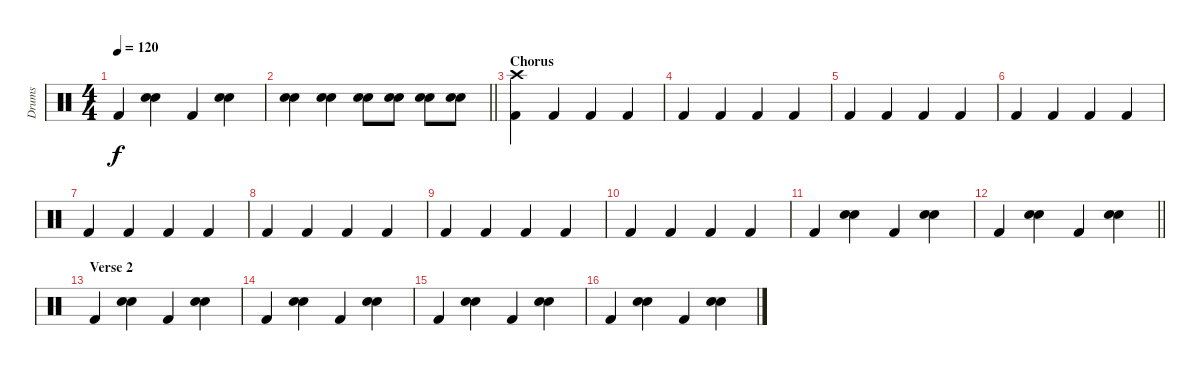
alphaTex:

\track ("Drums" "Drums") {instrument percussion}
\staff {score}
\articulation defaults
\ts (4 4)
\tempo 120
\clef neutral
\ks c "Kick (hit) 2".4{dy f}
("Electric Snare (hit)" "Snare (hit) 2").4 "Kick (hit) 2".4 ("Electric Snare (hit)" "Snare (hit) 2").4 |
\barLineRight lightlight
("Electric Snare (hit)" "Snare (hit) 2").4 ("Electric Snare (hit)" "Snare (hit) 2").4 ("Electric Snare (hit)" "Snare (hit) 2").8 ("Electric Snare (hit)" "Snare (hit) 2").8 ("Electric Snare (hit)" "Snare (hit) 2").8 ("Electric Snare (hit)" "Snare (hit) 2").8 |
\section ("" "Chorus")
("Crash high (hit)" "Kick (hit) 2").4 "Kick (hit) 2".4 "Kick (hit) 2".4 "Kick (hit) 2".4 |
"Kick (hit) 2".4 "Kick (hit) 2".4 "Kick (hit) 2".4 "Kick (hit) 2".4 |
"Kick (hit) 2".4 "Kick (hit) 2".4 "Kick (hit) 2".4 "Kick (hit) 2".4 |
"Kick (hit) 2".4 "Kick (hit) 2".4 "Kick (hit) 2".4 "Kick (hit) 2".4 |
"Kick (hit) 2".4 "Kick (hit) 2".4 "Kick (hit) 2".4 "Kick (hit) 2".4 |
"Kick (hit) 2".4 "Kick (hit) 2".4 "Kick (hit) 2".4 "Kick (hit) 2".4 |
"Kick (hit) 2".4 "Kick (hit) 2".4 "Kick (hit) 2".4 "Kick (hit) 2".4 |
"Kick (hit) 2".4 "Kick (hit) 2".4 "Kick (hit) 2".4 "Kick (hit) 2".4 |
"Kick (hit) 2".4 ("Electric Snare (hit)" "Snare (hit) 2").4 "Kick (hit) 2".4 ("Electric Snare (hit)" "Snare (hit) 2").4 |
\barLineRight lightlight "Kick (hit) 2".4
("Electric Snare (hit)" "Snare (hit) 2").4 "Kick (hit) 2".4 ("Electric Snare (hit)" "Snare (hit) 2").4 |
\section ("" "Verse 2")
"Kick (hit) 2".4 ("Electric Snare (hit)" "Snare (hit) 2").4 "Kick (hit) 2".4 ("Electric Snare (hit)" "Snare (hit) 2").4 |
"Kick (hit) 2".4 ("Electric Snare (hit)" "Snare (hit) 2").4 "Kick (hit) 2".4 ("Electric Snare (hit)" "Snare (hit) 2").4 |
"Kick (hit) 2".4 ("Electric Snare (hit)" "Snare (hit) 2").4 "Kick (hit) 2".4 ("Electric Snare (hit)" "Snare (hit) 2").4 |
"Kick (hit) 2".4 ("Electric Snare (hit)" "Snare (hit) 2").4 "Kick (hit) 2".4 ("Electric Snare (hit)" "Snare (hit) 2").4
